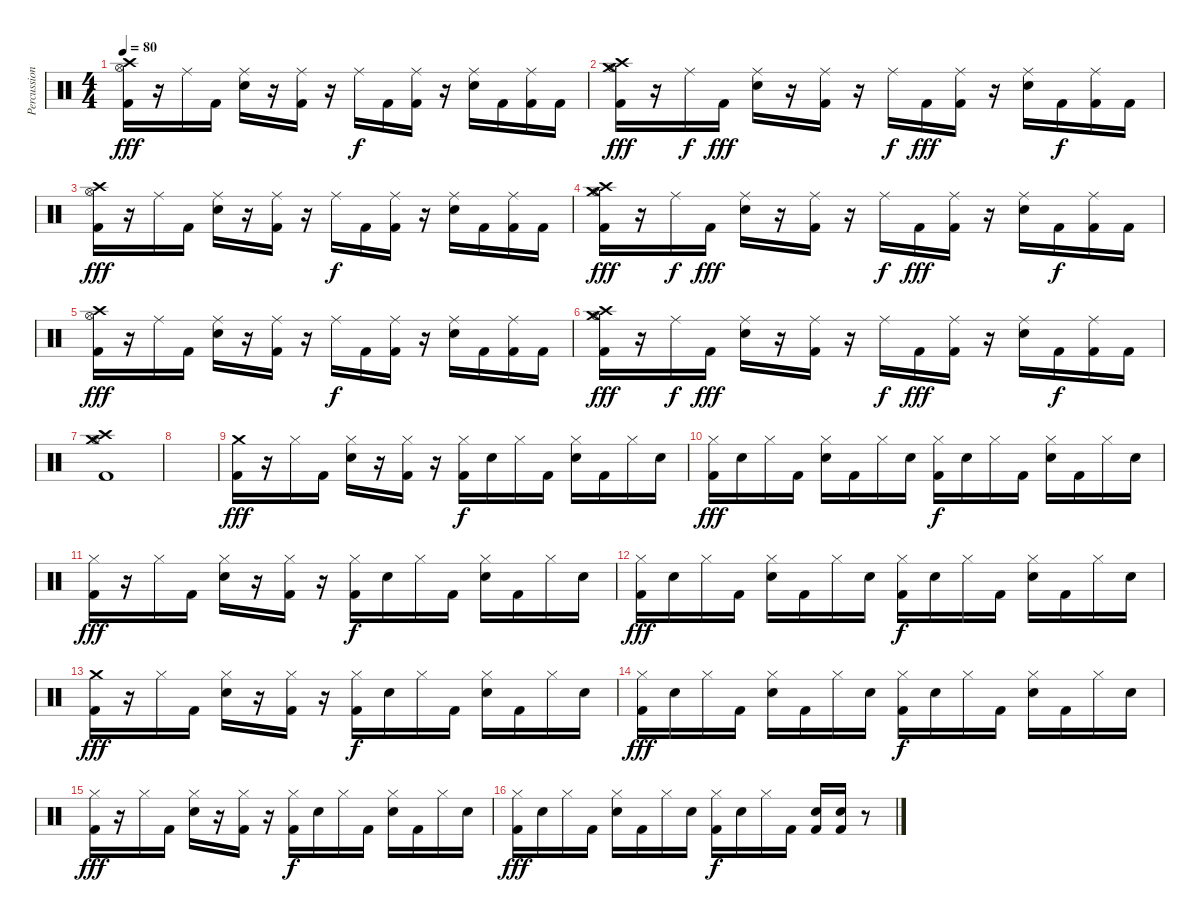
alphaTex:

\track ("Percussion" "Percussion") {instrument percussion}
\staff {score}
\articulation defaults
\ts (4 4)
\tempo 80
\clef neutral
\ks c
("Hi-Hat (open)" "Kick (hit) 2" "Crash high (hit)").16{dy fff} r.16 "Ride (middle)".16 "Kick (hit) 2".16 ("Electric Snare (hit)" "Ride (middle)").16 r.16 ("Ride (middle)" "Kick (hit) 2").16 r.16 "Ride (middle)".16{dy f} "Kick (hit) 2".16 ("Ride (middle)" "Kick (hit) 2").16 r.16 ("Ride (middle)" "Electric Snare (hit)").16 "Kick (hit) 2".16 ("Kick (hit) 2" "Ride (middle)").16 "Kick (hit) 2".16 |
("Kick (hit) 2" "Hi-Hat (open)" "Crash high (hit)" "Crash medium (hit)").16{dy fff} r.16 "Ride (middle)".16{dy f} "Kick (hit) 2".16{dy fff} ("Electric Snare (hit)" "Ride (middle)").16 r.16 ("Ride (middle)" "Kick (hit) 2").16 r.16 "Ride (middle)".16{dy f} "Kick (hit) 2".16{dy fff} ("Ride (middle)" "Kick (hit) 2").16 r.16 ("Ride (middle)" "Electric Snare (hit)").16 "Kick (hit) 2".16{dy f} ("Kick (hit) 2" "Ride (middle)").16 "Kick (hit) 2".16 |
("Hi-Hat (open)" "Kick (hit) 2" "Crash high (hit)").16{dy fff} r.16 "Ride (middle)".16 "Kick (hit) 2".16 ("Electric Snare (hit)" "Ride (middle)").16 r.16 ("Ride (middle)" "Kick (hit) 2").16 r.16 "Ride (middle)".16{dy f} "Kick (hit) 2".16 ("Ride (middle)" "Kick (hit) 2").16 r.16 ("Ride (middle)" "Electric Snare (hit)").16 "Kick (hit) 2".16 ("Kick (hit) 2" "Ride (middle)").16 "Kick (hit) 2".16 |
("Kick (hit) 2" "Hi-Hat (open)" "Crash high (hit)" "Crash medium (hit)").16{dy fff} r.16 "Ride (middle)".16{dy f} "Kick (hit) 2".16{dy fff} ("Electric Snare (hit)" "Ride (middle)").16 r.16 ("Ride (middle)" "Kick (hit) 2").16 r.16 "Ride (middle)".16{dy f} "Kick (hit) 2".16{dy fff} ("Ride (middle)" "Kick (hit) 2").16 r.16 ("Ride (middle)" "Electric Snare (hit)").16 "Kick (hit) 2".16{dy f} ("Kick (hit) 2" "Ride (middle)").16 "Kick (hit) 2".16 |
("Hi-Hat (open)" "Kick (hit) 2" "Crash high (hit)").16{dy fff} r.16 "Ride (middle)".16 "Kick (hit) 2".16 ("Electric Snare (hit)" "Ride (middle)").16 r.16 ("Ride (middle)" "Kick (hit) 2").16 r.16 "Ride (middle)".16{dy f} "Kick (hit) 2".16 ("Ride (middle)" "Kick (hit) 2").16 r.16 ("Ride (middle)" "Electric Snare (hit)").16 "Kick (hit) 2".16 ("Kick (hit) 2" "Ride (middle)").16 "Kick (hit) 2".16 |
("Kick (hit) 2" "Hi-Hat (open)" "Crash high (hit)" "Crash medium (hit)").16{dy fff} r.16 "Ride (middle)".16{dy f} "Kick (hit) 2".16{dy fff} ("Electric Snare (hit)" "Ride (middle)").16 r.16 ("Ride (middle)" "Kick (hit) 2").16 r.16 "Ride (middle)".16{dy f} "Kick (hit) 2".16{dy fff} ("Ride (middle)" "Kick (hit) 2").16 r.16 ("Ride (middle)" "Electric Snare (hit)").16 "Kick (hit) 2".16{dy f} ("Kick (hit) 2" "Ride (middle)").16 "Kick (hit) 2".16 |
("Kick (hit) 2" "Hi-Hat (open)" "Crash high (hit)" "Crash medium (hit)").1 |
|
("Crash medium (hit)" "Kick (hit) 2").16{dy fff} r.16 "Hi-Hat (closed)".16 "Kick (hit) 2".16 ("Hi-Hat (closed)" "Electric Snare (hit)").16 r.16 ("Hi-Hat (closed)" "Kick (hit) 2").16 r.16 ("Hi-Hat (closed)" "Kick (hit) 2").16{dy f} "Electric Snare (hit)".16 "Hi-Hat (closed)".16 "Kick (hit) 2".16 ("Electric Snare (hit)" "Hi-Hat (closed)").16 "Kick (hit) 2".16 "Hi-Hat (closed)".16 "Electric Snare (hit)".16 |
("Hi-Hat (closed)" "Kick (hit) 2").16{dy fff} "Electric Snare (hit)".16 "Hi-Hat (closed)".16 "Kick (hit) 2".16 ("Electric Snare (hit)" "Hi-Hat (closed)").16 "Kick (hit) 2".16 "Hi-Hat (closed)".16 "Electric Snare (hit)".16 ("Hi-Hat (closed)" "Kick (hit) 2").16{dy f} "Electric Snare (hit)".16 "Hi-Hat (closed)".16 "Kick (hit) 2".16 ("Electric Snare (hit)" "Hi-Hat (closed)").16 "Kick (hit) 2".16 "Hi-Hat (closed)".16 "Electric Snare (hit)".16 |
("Kick (hit) 2" "Hi-Hat (closed)").16{dy fff} r.16 "Hi-Hat (closed)".16 "Kick (hit) 2".16 ("Hi-Hat (closed)" "Electric Snare (hit)").16 r.16 ("Hi-Hat (closed)" "Kick (hit) 2").16 r.16 ("Hi-Hat (closed)" "Kick (hit) 2").16{dy f} "Electric Snare (hit)".16 "Hi-Hat (closed)".16 "Kick (hit) 2".16 ("Electric Snare (hit)" "Hi-Hat (closed)").16 "Kick (hit) 2".16 "Hi-Hat (closed)".16 "Electric Snare (hit)".16 |
("Hi-Hat (closed)" "Kick (hit) 2").16{dy fff} "Electric Snare (hit)".16 "Hi-Hat (closed)".16 "Kick (hit) 2".16 ("Electric Snare (hit)" "Hi-Hat (closed)").16 "Kick (hit) 2".16 "Hi-Hat (closed)".16 "Electric Snare (hit)".16 ("Hi-Hat (closed)" "Kick (hit) 2").16{dy f} "Electric Snare (hit)".16 "Hi-Hat (closed)".16 "Kick (hit) 2".16 ("Electric Snare (hit)" "Hi-Hat (closed)").16 "Kick (hit) 2".16 "Hi-Hat (closed)".16 "Electric Snare (hit)".16 |
("Crash medium (hit)" "Kick (hit) 2").16{dy fff} r.16 "Hi-Hat (closed)".16 "Kick (hit) 2".16 ("Hi-Hat (closed)" "Electric Snare (hit)").16 r.16 ("Hi-Hat (closed)" "Kick (hit) 2").16 r.16 ("Hi-Hat (closed)" "Kick (hit) 2").16{dy f} "Electric Snare (hit)".16 "Hi-Hat (closed)".16 "Kick (hit) 2".16 ("Electric Snare (hit)" "Hi-Hat (closed)").16 "Kick (hit) 2".16 "Hi-Hat (closed)".16 "Electric Snare (hit)".16 |
("Hi-Hat (closed)" "Kick (hit) 2").16{dy fff} "Electric Snare (hit)".16 "Hi-Hat (closed)".16 "Kick (hit) 2".16 ("Electric Snare (hit)" "Hi-Hat (closed)").16 "Kick (hit) 2".16 "Hi-Hat (closed)".16 "Electric Snare (hit)".16 ("Hi-Hat (closed)" "Kick (hit) 2").16{dy f} "Electric Snare (hit)".16 "Hi-Hat (closed)".16 "Kick (hit) 2".16 ("Electric Snare (hit)" "Hi-Hat (closed)").16 "Kick (hit) 2".16 "Hi-Hat (closed)".16 "Electric Snare (hit)".16 |
("Kick (hit) 2" "Hi-Hat (closed)").16{dy fff} r.16 "Hi-Hat (closed)".16 "Kick (hit) 2".16 ("Hi-Hat (closed)" "Electric Snare (hit)").16 r.16 ("Hi-Hat (closed)" "Kick (hit) 2").16 r.16 ("Hi-Hat (closed)" "Kick (hit) 2").16{dy f} "Electric Snare (hit)".16 "Hi-Hat (closed)".16 "Kick (hit) 2".16 ("Electric Snare (hit)" "Hi-Hat (closed)").16 "Kick (hit) 2".16 "Hi-Hat (closed)".16 "Electric Snare (hit)".16 |
("Hi-Hat (closed)" "Kick (hit) 2").16{dy fff} "Electric Snare (hit)".16 "Hi-Hat (closed)".16 "Kick (hit) 2".16 ("Electric Snare (hit)" "Hi-Hat (closed)").16 "Kick (hit) 2".16 "Hi-Hat (closed)".16 "Electric Snare (hit)".16 ("Hi-Hat (closed)" "Kick (hit) 2").16{dy f} "Electric Snare (hit)".16 "Hi-Hat (closed)".16 "Kick (hit) 2".16 ("Electric Snare (hit)" "Kick (hit) 2").16 ("Electric Snare (hit)" "Kick (hit) 2").16 r.8
